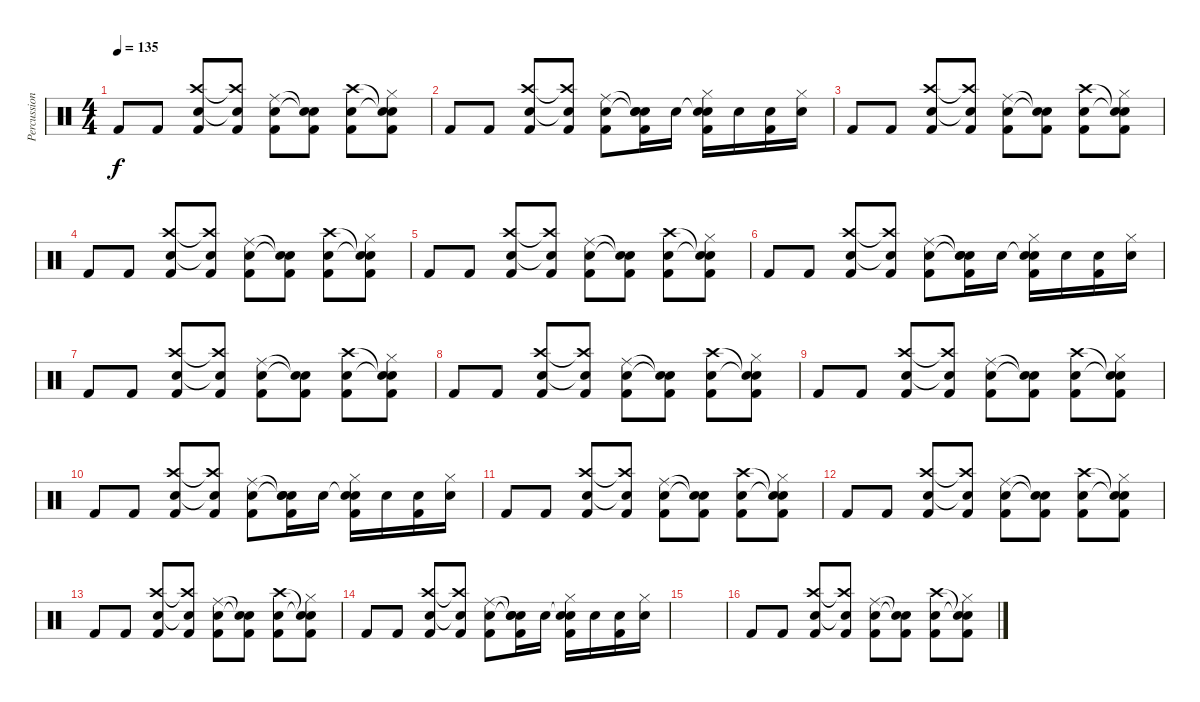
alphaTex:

\track ("Percussion" "Percussion") {instrument percussion}
\staff {score}
\articulation defaults
\ts (4 4)
\tempo 135
\clef neutral
\ks c "Kick (hit) 2".8{dy f} "Kick (hit) 2".8
("Crash high (hit)" "Electric Snare (hit)" "Kick (hit) 2").8 ("Crash high (hit)"{t} "Electric Snare (hit)"{t} "Kick (hit) 2").8 ("Ride (middle)" "Electric Snare (hit)" "Kick (hit) 2").8 ("Snare (hit)"{t} "Snare (hit)"{t} "Kick (hit) 2").8 ("Crash high (hit)" "Electric Snare (hit)" "Kick (hit) 2").8 ("Snare (hit)"{t} "Snare (hit)"{t} "Hi-Hat (closed)" "Kick (hit) 2").8 |
"Kick (hit) 2".8 "Kick (hit) 2".8 ("Crash high (hit)" "Electric Snare (hit)" "Kick (hit) 2").8 ("Crash high (hit)"{t} "Electric Snare (hit)"{t} "Kick (hit) 2").8 ("Ride (middle)" "Electric Snare (hit)" "Kick (hit) 2").8 ("Snare (hit)"{t} "Snare (hit)"{t} "Electric Snare (hit)" "Kick (hit) 2").16 "Electric Snare (hit)".16 ("Snare (hit)"{t} "Hi-Hat (closed)" "Electric Snare (hit)" "Kick (hit) 2").16 "Electric Snare (hit)".16 ("Electric Snare (hit)" "Kick (hit) 2").16 ("Hi-Hat (closed)" "Electric Snare (hit)").16 |
"Kick (hit) 2".8 "Kick (hit) 2".8 ("Crash high (hit)" "Electric Snare (hit)" "Kick (hit) 2").8 ("Crash high (hit)"{t} "Electric Snare (hit)"{t} "Kick (hit) 2").8 ("Ride (middle)" "Electric Snare (hit)" "Kick (hit) 2").8 ("Snare (hit)"{t} "Snare (hit)"{t} "Kick (hit) 2").8 ("Crash high (hit)" "Electric Snare (hit)" "Kick (hit) 2").8 ("Snare (hit)"{t} "Snare (hit)"{t} "Hi-Hat (closed)" "Kick (hit) 2").8 |
"Kick (hit) 2".8 "Kick (hit) 2".8 ("Crash high (hit)" "Electric Snare (hit)" "Kick (hit) 2").8 ("Crash high (hit)"{t} "Electric Snare (hit)"{t} "Kick (hit) 2").8 ("Ride (middle)" "Electric Snare (hit)" "Kick (hit) 2").8 ("Snare (hit)"{t} "Snare (hit)"{t} "Kick (hit) 2").8 ("Crash high (hit)" "Electric Snare (hit)" "Kick (hit) 2").8 ("Snare (hit)"{t} "Snare (hit)"{t} "Hi-Hat (closed)" "Kick (hit) 2").8 |
"Kick (hit) 2".8 "Kick (hit) 2".8 ("Crash high (hit)" "Electric Snare (hit)" "Kick (hit) 2").8 ("Crash high (hit)"{t} "Electric Snare (hit)"{t} "Kick (hit) 2").8 ("Ride (middle)" "Electric Snare (hit)" "Kick (hit) 2").8 ("Snare (hit)"{t} "Snare (hit)"{t} "Kick (hit) 2").8 ("Crash high (hit)" "Electric Snare (hit)" "Kick (hit) 2").8 ("Snare (hit)"{t} "Snare (hit)"{t} "Hi-Hat (closed)" "Kick (hit) 2").8 |
"Kick (hit) 2".8 "Kick (hit) 2".8 ("Crash high (hit)" "Electric Snare (hit)" "Kick (hit) 2").8 ("Crash high (hit)"{t} "Electric Snare (hit)"{t} "Kick (hit) 2").8 ("Ride (middle)" "Electric Snare (hit)" "Kick (hit) 2").8 ("Snare (hit)"{t} "Snare (hit)"{t} "Electric Snare (hit)" "Kick (hit) 2").16 "Electric Snare (hit)".16 ("Snare (hit)"{t} "Hi-Hat (closed)" "Electric Snare (hit)" "Kick (hit) 2").16 "Electric Snare (hit)".16 ("Electric Snare (hit)" "Kick (hit) 2").16 ("Hi-Hat (closed)" "Electric Snare (hit)").16 |
"Kick (hit) 2".8 "Kick (hit) 2".8 ("Crash high (hit)" "Electric Snare (hit)" "Kick (hit) 2").8 ("Crash high (hit)"{t} "Electric Snare (hit)"{t} "Kick (hit) 2").8 ("Ride (middle)" "Electric Snare (hit)" "Kick (hit) 2").8 ("Snare (hit)"{t} "Snare (hit)"{t} "Kick (hit) 2").8 ("Crash high (hit)" "Electric Snare (hit)" "Kick (hit) 2").8 ("Snare (hit)"{t} "Snare (hit)"{t} "Hi-Hat (closed)" "Kick (hit) 2").8 |
"Kick (hit) 2".8 "Kick (hit) 2".8 ("Crash high (hit)" "Electric Snare (hit)" "Kick (hit) 2").8 ("Crash high (hit)"{t} "Electric Snare (hit)"{t} "Kick (hit) 2").8 ("Ride (middle)" "Electric Snare (hit)" "Kick (hit) 2").8 ("Snare (hit)"{t} "Snare (hit)"{t} "Kick (hit) 2").8 ("Crash high (hit)" "Electric Snare (hit)" "Kick (hit) 2").8 ("Snare (hit)"{t} "Snare (hit)"{t} "Hi-Hat (closed)" "Kick (hit) 2").8 |
"Kick (hit) 2".8 "Kick (hit) 2".8 ("Crash high (hit)" "Electric Snare (hit)" "Kick (hit) 2").8 ("Crash high (hit)"{t} "Electric Snare (hit)"{t} "Kick (hit) 2").8 ("Ride (middle)" "Electric Snare (hit)" "Kick (hit) 2").8 ("Snare (hit)"{t} "Snare (hit)"{t} "Kick (hit) 2").8 ("Crash high (hit)" "Electric Snare (hit)" "Kick (hit) 2").8 ("Snare (hit)"{t} "Snare (hit)"{t} "Hi-Hat (closed)" "Kick (hit) 2").8 |
"Kick (hit) 2".8 "Kick (hit) 2".8 ("Crash high (hit)" "Electric Snare (hit)" "Kick (hit) 2").8 ("Crash high (hit)"{t} "Electric Snare (hit)"{t} "Kick (hit) 2").8 ("Ride (middle)" "Electric Snare (hit)" "Kick (hit) 2").8 ("Snare (hit)"{t} "Snare (hit)"{t} "Electric Snare (hit)" "Kick (hit) 2").16 "Electric Snare (hit)".16 ("Snare (hit)"{t} "Hi-Hat (closed)" "Electric Snare (hit)" "Kick (hit) 2").16 "Electric Snare (hit)".16 ("Electric Snare (hit)" "Kick (hit) 2").16 ("Hi-Hat (closed)" "Electric Snare (hit)").16 |
"Kick (hit) 2".8 "Kick (hit) 2".8 ("Crash high (hit)" "Electric Snare (hit)" "Kick (hit) 2").8 ("Crash high (hit)"{t} "Electric Snare (hit)"{t} "Kick (hit) 2").8 ("Ride (middle)" "Electric Snare (hit)" "Kick (hit) 2").8 ("Snare (hit)"{t} "Snare (hit)"{t} "Kick (hit) 2").8 ("Crash high (hit)" "Electric Snare (hit)" "Kick (hit) 2").8 ("Snare (hit)"{t} "Snare (hit)"{t} "Hi-Hat (closed)" "Kick (hit) 2").8 |
"Kick (hit) 2".8 "Kick (hit) 2".8 ("Crash high (hit)" "Electric Snare (hit)" "Kick (hit) 2").8 ("Crash high (hit)"{t} "Electric Snare (hit)"{t} "Kick (hit) 2").8 ("Ride (middle)" "Electric Snare (hit)" "Kick (hit) 2").8 ("Snare (hit)"{t} "Snare (hit)"{t} "Kick (hit) 2").8 ("Crash high (hit)" "Electric Snare (hit)" "Kick (hit) 2").8 ("Snare (hit)"{t} "Snare (hit)"{t} "Hi-Hat (closed)" "Kick (hit) 2").8 |
"Kick (hit) 2".8 "Kick (hit) 2".8 ("Crash high (hit)" "Electric Snare (hit)" "Kick (hit) 2").8 ("Crash high (hit)"{t} "Electric Snare (hit)"{t} "Kick (hit) 2").8 ("Ride (middle)" "Electric Snare (hit)" "Kick (hit) 2").8 ("Snare (hit)"{t} "Snare (hit)"{t} "Kick (hit) 2").8 ("Crash high (hit)" "Electric Snare (hit)" "Kick (hit) 2").8 ("Snare (hit)"{t} "Snare (hit)"{t} "Hi-Hat (closed)" "Kick (hit) 2").8 |
"Kick (hit) 2".8 "Kick (hit) 2".8 ("Crash high (hit)" "Electric Snare (hit)" "Kick (hit) 2").8 ("Crash high (hit)"{t} "Electric Snare (hit)"{t} "Kick (hit) 2").8 ("Ride (middle)" "Electric Snare (hit)" "Kick (hit) 2").8 ("Snare (hit)"{t} "Snare (hit)"{t} "Electric Snare (hit)" "Kick (hit) 2").16 "Electric Snare (hit)".16 ("Snare (hit)"{t} "Hi-Hat (closed)" "Electric Snare (hit)" "Kick (hit) 2").16 "Electric Snare (hit)".16 ("Electric Snare (hit)" "Kick (hit) 2").16 ("Hi-Hat (closed)" "Electric Snare (hit)").16 |
|
"Kick (hit) 2".8 "Kick (hit) 2".8 ("Crash high (hit)" "Electric Snare (hit)" "Kick (hit) 2").8 ("Crash high (hit)"{t} "Electric Snare (hit)"{t} "Kick (hit) 2").8 ("Ride (middle)" "Electric Snare (hit)" "Kick (hit) 2").8 ("Snare (hit)"{t} "Snare (hit)"{t} "Kick (hit) 2").8 ("Crash high (hit)" "Electric Snare (hit)" "Kick (hit) 2").8 ("Snare (hit)"{t} "Snare (hit)"{t} "Hi-Hat (closed)" "Kick (hit) 2").8
